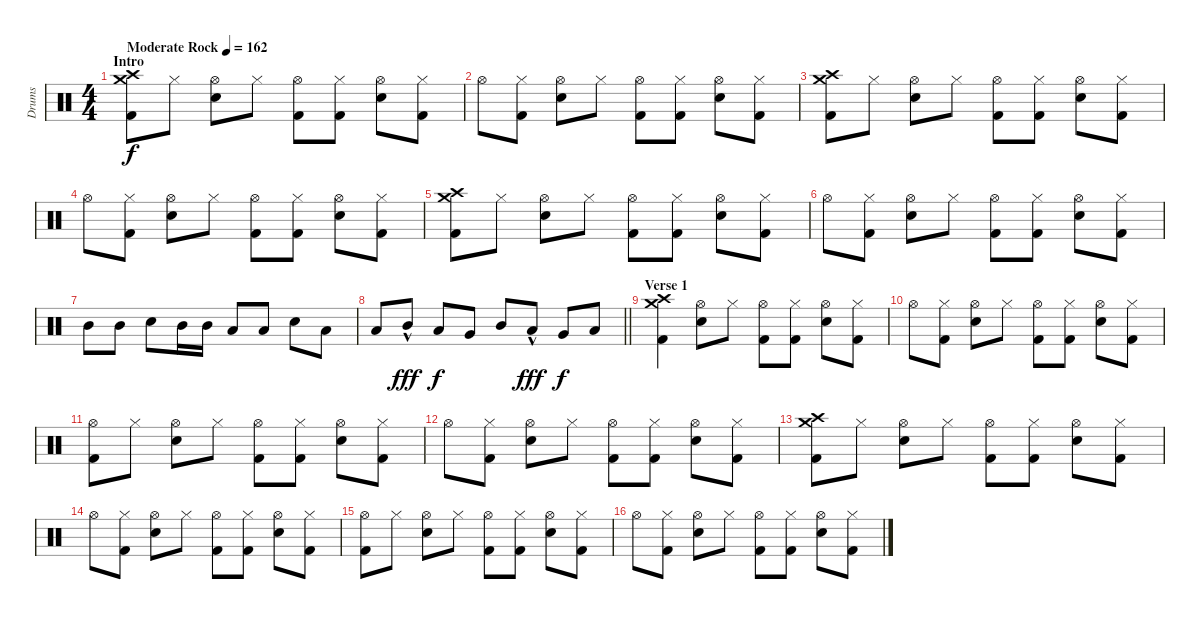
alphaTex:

\track ("Drums" "Drums") {instrument percussion}
\staff {score}
\articulation defaults
\ts (4 4)
\section ("" "Intro")
\tempo (162 "Moderate Rock")
\clef neutral
\ks c
("Crash high (hit)" "Crash medium (hit)" "Kick (hit) 2").8{dy f} "Hi-Hat (closed)".8 ("Hi-Hat (open)" "Snare (hit) 2").8 "Hi-Hat (closed)".8 ("Hi-Hat (open)" "Kick (hit) 2").8 ("Hi-Hat (closed)" "Kick (hit) 2").8 ("Hi-Hat (open)" "Snare (hit) 2").8 ("Hi-Hat (closed)" "Kick (hit) 2").8 |
"Hi-Hat (open)".8 ("Hi-Hat (closed)" "Kick (hit) 2").8 ("Hi-Hat (open)" "Snare (hit) 2").8 "Hi-Hat (closed)".8 ("Hi-Hat (open)" "Kick (hit) 2").8 ("Hi-Hat (closed)" "Kick (hit) 2").8 ("Hi-Hat (open)" "Snare (hit) 2").8 ("Hi-Hat (closed)" "Kick (hit) 2").8 |
("Crash high (hit)" "Crash medium (hit)" "Kick (hit) 2").8 "Hi-Hat (closed)".8 ("Hi-Hat (open)" "Snare (hit) 2").8 "Hi-Hat (closed)".8 ("Hi-Hat (open)" "Kick (hit) 2").8 ("Hi-Hat (closed)" "Kick (hit) 2").8 ("Hi-Hat (open)" "Snare (hit) 2").8 ("Hi-Hat (closed)" "Kick (hit) 2").8 |
"Hi-Hat (open)".8 ("Hi-Hat (closed)" "Kick (hit) 2").8 ("Hi-Hat (open)" "Snare (hit) 2").8 "Hi-Hat (closed)".8 ("Hi-Hat (open)" "Kick (hit) 2").8 ("Hi-Hat (closed)" "Kick (hit) 2").8 ("Hi-Hat (open)" "Snare (hit) 2").8 ("Hi-Hat (closed)" "Kick (hit) 2").8 |
("Crash high (hit)" "Crash medium (hit)" "Kick (hit) 2").8 "Hi-Hat (closed)".8 ("Hi-Hat (open)" "Snare (hit) 2").8 "Hi-Hat (closed)".8 ("Hi-Hat (open)" "Kick (hit) 2").8 ("Hi-Hat (closed)" "Kick (hit) 2").8 ("Hi-Hat (open)" "Snare (hit) 2").8 ("Hi-Hat (closed)" "Kick (hit) 2").8 |
"Hi-Hat (open)".8 ("Hi-Hat (closed)" "Kick (hit) 2").8 ("Hi-Hat (open)" "Snare (hit) 2").8 "Hi-Hat (closed)".8 ("Hi-Hat (open)" "Kick (hit) 2").8 ("Hi-Hat (closed)" "Kick (hit) 2").8 ("Hi-Hat (open)" "Snare (hit) 2").8 ("Hi-Hat (closed)" "Kick (hit) 2").8 |
"Mid Tom (hit)".8 "Mid Tom (hit)".8 "Snare (hit) 2".8 "Mid Tom (hit)".16 "Mid Tom (hit)".16 "Low Tom (hit)".8 "Low Tom (hit)".8 "Snare (hit) 2".8 "Low Tom (hit)".8 |
\barLineRight lightlight "Low Tom (hit)".8 "Mid Tom (hit)"{hac}.8{dy fff} "Low Tom (hit)".8{dy f} "Very Low Tom (hit)".8 "Mid Tom (hit)".8 "Low Tom (hit)"{hac}.8{dy fff} "Very Low Tom (hit)".8{dy f} "Low Floor Tom (hit)".8
|
\section ("" "Verse 1")
("Crash high (hit)" "Crash medium (hit)" "Kick (hit) 2").4 ("Hi-Hat (open)" "Snare (hit) 2").8 "Hi-Hat (closed)".8 ("Hi-Hat (open)" "Kick (hit) 2").8 ("Hi-Hat (closed)" "Kick (hit) 2").8 ("Hi-Hat (open)" "Snare (hit) 2").8 ("Hi-Hat (closed)" "Kick (hit) 2").8 |
"Hi-Hat (open)".8 ("Hi-Hat (closed)" "Kick (hit) 2").8 ("Hi-Hat (open)" "Snare (hit) 2").8 "Hi-Hat (closed)".8 ("Hi-Hat (open)" "Kick (hit) 2").8 ("Hi-Hat (closed)" "Kick (hit) 2").8 ("Hi-Hat (open)" "Snare (hit) 2").8 ("Hi-Hat (closed)" "Kick (hit) 2").8 |
("Hi-Hat (open)" "Kick (hit) 2").8 "Hi-Hat (closed)".8 ("Hi-Hat (open)" "Snare (hit) 2").8 "Hi-Hat (closed)".8 ("Hi-Hat (open)" "Kick (hit) 2").8 ("Hi-Hat (closed)" "Kick (hit) 2").8 ("Hi-Hat (open)" "Snare (hit) 2").8 ("Hi-Hat (closed)" "Kick (hit) 2").8 |
"Hi-Hat (open)".8 ("Hi-Hat (closed)" "Kick (hit) 2").8 ("Hi-Hat (open)" "Snare (hit) 2").8 "Hi-Hat (closed)".8 ("Hi-Hat (open)" "Kick (hit) 2").8 ("Hi-Hat (closed)" "Kick (hit) 2").8 ("Hi-Hat (open)" "Snare (hit) 2").8 ("Hi-Hat (closed)" "Kick (hit) 2").8 |
("Crash high (hit)" "Crash medium (hit)" "Kick (hit) 2").8 "Hi-Hat (closed)".8 ("Hi-Hat (open)" "Snare (hit) 2").8 "Hi-Hat (closed)".8 ("Hi-Hat (open)" "Kick (hit) 2").8 ("Hi-Hat (closed)" "Kick (hit) 2").8 ("Hi-Hat (open)" "Snare (hit) 2").8 ("Hi-Hat (closed)" "Kick (hit) 2").8 |
"Hi-Hat (open)".8 ("Hi-Hat (closed)" "Kick (hit) 2").8 ("Hi-Hat (open)" "Snare (hit) 2").8 "Hi-Hat (closed)".8 ("Hi-Hat (open)" "Kick (hit) 2").8 ("Hi-Hat (closed)" "Kick (hit) 2").8 ("Hi-Hat (open)" "Snare (hit) 2").8 ("Hi-Hat (closed)" "Kick (hit) 2").8 |
("Hi-Hat (open)" "Kick (hit) 2").8 "Hi-Hat (closed)".8 ("Hi-Hat (open)" "Snare (hit) 2").8 "Hi-Hat (closed)".8 ("Hi-Hat (open)" "Kick (hit) 2").8 ("Hi-Hat (closed)" "Kick (hit) 2").8 ("Hi-Hat (open)" "Snare (hit) 2").8 ("Hi-Hat (closed)" "Kick (hit) 2").8 |
"Hi-Hat (open)".8 ("Hi-Hat (closed)" "Kick (hit) 2").8 ("Hi-Hat (open)" "Snare (hit) 2").8 "Hi-Hat (closed)".8 ("Hi-Hat (open)" "Kick (hit) 2").8 ("Hi-Hat (closed)" "Kick (hit) 2").8 ("Hi-Hat (open)" "Snare (hit) 2").8 ("Hi-Hat (closed)" "Kick (hit) 2").8
